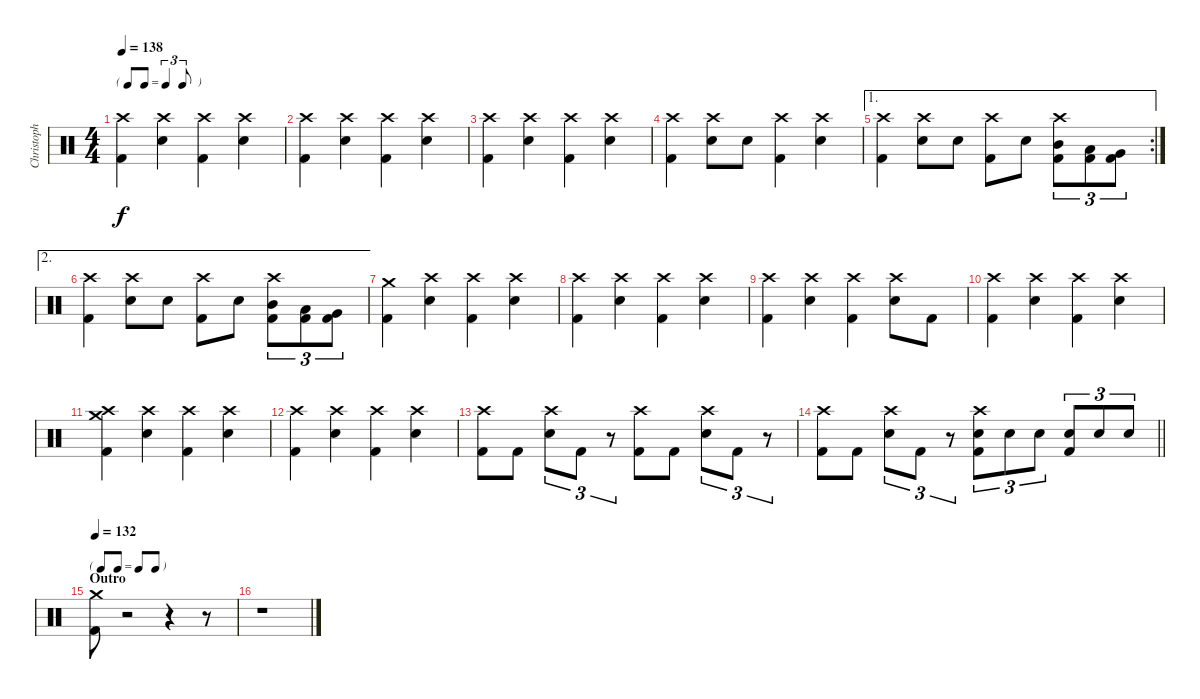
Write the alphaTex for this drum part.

\track ("Christoph Schneider" "Christoph ") {instrument percussion}
\staff {score}
\articulation defaults
\ts (4 4)
\tf triplet8th
\tempo 138
\clef neutral
\ks c
("Crash high (hit)" "Kick (hit) 2").4{dy f} ("Crash high (hit)" "Electric Snare (hit)").4 ("Crash high (hit)" "Kick (hit) 2").4 ("Crash high (hit)" "Electric Snare (hit)").4 |
("Crash high (hit)" "Kick (hit) 2").4 ("Crash high (hit)" "Electric Snare (hit)").4 ("Crash high (hit)" "Kick (hit) 2").4 ("Crash high (hit)" "Electric Snare (hit)").4 |
("Crash high (hit)" "Kick (hit) 2").4 ("Crash high (hit)" "Electric Snare (hit)").4 ("Crash high (hit)" "Kick (hit) 2").4 ("Crash high (hit)" "Electric Snare (hit)").4 |
("Crash high (hit)" "Kick (hit) 2").4 ("Crash high (hit)" "Electric Snare (hit)").8 "Electric Snare (hit)".8 ("Crash high (hit)" "Kick (hit) 2").4 ("Crash high (hit)" "Electric Snare (hit)").4 |
\ae 1
\rc 2
("Crash high (hit)" "Kick (hit) 2").4 ("Crash high (hit)" "Electric Snare (hit)").8 "Electric Snare (hit)".8 ("Crash high (hit)" "Kick (hit) 2").8 "Electric Snare (hit)".8 ("Crash high (hit)" "Mid Tom (hit)" "Kick (hit) 2").8{tu (3 2)} ("Low Tom (hit)" "Kick (hit) 2").8{tu (3 2)} ("Very Low Tom (hit)" "Kick (hit) 2").8{tu (3 2)} |
\ae 2
("Crash high (hit)" "Kick (hit) 2").4 ("Crash high (hit)" "Electric Snare (hit)").8 "Electric Snare (hit)".8 ("Crash high (hit)" "Kick (hit) 2").8 "Electric Snare (hit)".8 ("Crash high (hit)" "Mid Tom (hit)" "Kick (hit) 2").8{tu (3 2)} ("Low Tom (hit)" "Kick (hit) 2").8{tu (3 2)} ("Very Low Tom (hit)" "Kick (hit) 2").8{tu (3 2)} |
("Crash medium (hit)" "Kick (hit) 2").4 ("Crash high (hit)" "Electric Snare (hit)").4 ("Crash high (hit)" "Kick (hit) 2").4 ("Crash high (hit)" "Electric Snare (hit)").4 |
("Crash high (hit)" "Kick (hit) 2").4 ("Crash high (hit)" "Electric Snare (hit)").4 ("Crash high (hit)" "Kick (hit) 2").4 ("Crash high (hit)" "Electric Snare (hit)").4 |
("Crash high (hit)" "Kick (hit) 2").4 ("Crash high (hit)" "Electric Snare (hit)").4 ("Crash high (hit)" "Kick (hit) 2").4 ("Crash high (hit)" "Electric Snare (hit)").8 "Kick (hit) 2".8 |
("Crash high (hit)" "Kick (hit) 2").4 ("Crash high (hit)" "Electric Snare (hit)").4 ("Crash high (hit)" "Kick (hit) 2").4 ("Crash high (hit)" "Electric Snare (hit)").4 |
("Crash medium (hit)" "Crash high (hit)" "Kick (hit) 2").4 ("Crash high (hit)" "Electric Snare (hit)").4 ("Crash high (hit)" "Kick (hit) 2").4 ("Crash high (hit)" "Electric Snare (hit)").4 |
("Crash high (hit)" "Kick (hit) 2").4 ("Crash high (hit)" "Electric Snare (hit)").4 ("Crash high (hit)" "Kick (hit) 2").4 ("Crash high (hit)" "Electric Snare (hit)").4 |
("Crash high (hit)" "Kick (hit) 2").8 "Kick (hit) 2".8 ("Crash high (hit)" "Electric Snare (hit)").8{tu (3 2)} "Kick (hit) 2".8{tu (3 2)} r.8{tu (3 2)} ("Crash high (hit)" "Kick (hit) 2").8 "Kick (hit) 2".8 ("Crash high (hit)" "Electric Snare (hit)").8{tu (3 2)} "Kick (hit) 2".8{tu (3 2)} r.8{tu (3 2)} |
\barLineRight lightlight
("Crash high (hit)" "Kick (hit) 2").8 "Kick (hit) 2".8 ("Crash high (hit)" "Electric Snare (hit)").8{tu (3 2)} "Kick (hit) 2".8{tu (3 2)} r.8{tu (3 2)} ("Crash high (hit)" "Electric Snare (hit)" "Kick (hit) 2").8{tu (3 2)} "Electric Snare (hit)".8{tu (3 2)} "Electric Snare (hit)".8{tu (3 2)} ("Electric Snare (hit)" "Kick (hit) 2").8{tu (3 2)} "Electric Snare (hit)".8{tu (3 2)} "Electric Snare (hit)".8{tu (3 2)} |
\tf none
\section ("" "Outro")
\tempo 132
("Crash medium (hit)" "Kick (hit) 2").8 r.2 r.4 r.8 |
r.1
